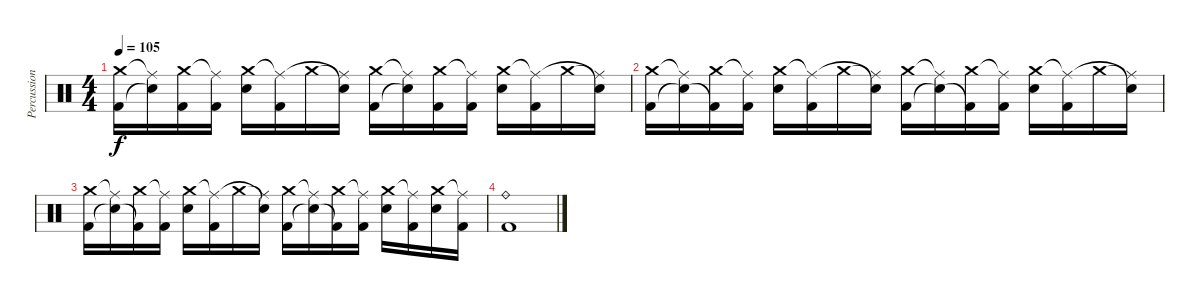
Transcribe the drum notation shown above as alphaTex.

\track ("Percussions" "Percussion") {instrument percussion}
\staff {score}
\articulation defaults
\ts (4 4)
\tempo 105
\clef neutral
\ks c
("Kick (hit) 2" "Crash medium (hit)").16{dy f} ("Snare (hit)"{t} "Ride (middle)"{t}).16 ("Kick (hit) 2" "Crash medium (hit)").16 ("Kick (hit) 2" "Ride (middle)"{t}).16 ("Electric Snare (hit)" "Crash medium (hit)").16 ("Kick (hit) 2" "Ride (middle)"{t}).16 "Crash medium (hit)".16 ("Snare (hit)"{t} "Ride (middle)"{t}).16 ("Kick (hit) 2" "Crash medium (hit)").16 ("Snare (hit)"{t} "Ride (middle)"{t}).16 ("Kick (hit) 2" "Crash medium (hit)").16 ("Kick (hit) 2" "Ride (middle)"{t}).16 ("Electric Snare (hit)" "Crash medium (hit)").16 ("Kick (hit) 2" "Ride (middle)"{t}).16 "Crash medium (hit)".16 ("Snare (hit)"{t} "Ride (middle)"{t}).16 |
("Kick (hit) 2" "Crash medium (hit)").16 ("Snare (hit)"{t} "Ride (middle)"{t}).16 ("Kick (hit) 2"{t} "Crash medium (hit)").16 ("Kick (hit) 2" "Ride (middle)"{t}).16 ("Electric Snare (hit)" "Crash medium (hit)").16 ("Kick (hit) 2" "Ride (middle)"{t}).16 "Crash medium (hit)".16 ("Snare (hit)"{t} "Ride (middle)"{t}).16 ("Kick (hit) 2" "Crash medium (hit)").16 ("Snare (hit)"{t} "Ride (middle)"{t}).16 ("Kick (hit) 2"{t} "Crash medium (hit)").16 ("Kick (hit) 2" "Ride (middle)"{t}).16 ("Electric Snare (hit)" "Crash medium (hit)").16 ("Kick (hit) 2" "Ride (middle)"{t}).16 "Crash medium (hit)".16 ("Snare (hit)"{t} "Ride (middle)"{t}).16 |
("Kick (hit) 2" "Crash medium (hit)").16 ("Snare (hit)"{t} "Ride (middle)"{t}).16 ("Kick (hit) 2"{t} "Crash medium (hit)").16 ("Kick (hit) 2" "Ride (middle)"{t}).16 ("Electric Snare (hit)" "Crash medium (hit)").16 ("Kick (hit) 2" "Ride (middle)"{t}).16 "Crash medium (hit)".16 ("Snare (hit)"{t} "Ride (middle)"{t}).16 ("Kick (hit) 2" "Crash medium (hit)").16 ("Snare (hit)"{t} "Ride (middle)"{t}).16 ("Kick (hit) 2"{t} "Crash medium (hit)").16 ("Kick (hit) 2" "Ride (middle)"{t}).16 ("Electric Snare (hit)" "Crash medium (hit)").16 ("Kick (hit) 2" "Ride (middle)"{t}).16 ("Electric Snare (hit)" "Crash medium (hit)").16 ("Kick (hit) 2" "Ride (middle)"{t}).16 |
("Ride (bell)" "Kick (hit) 2").1
